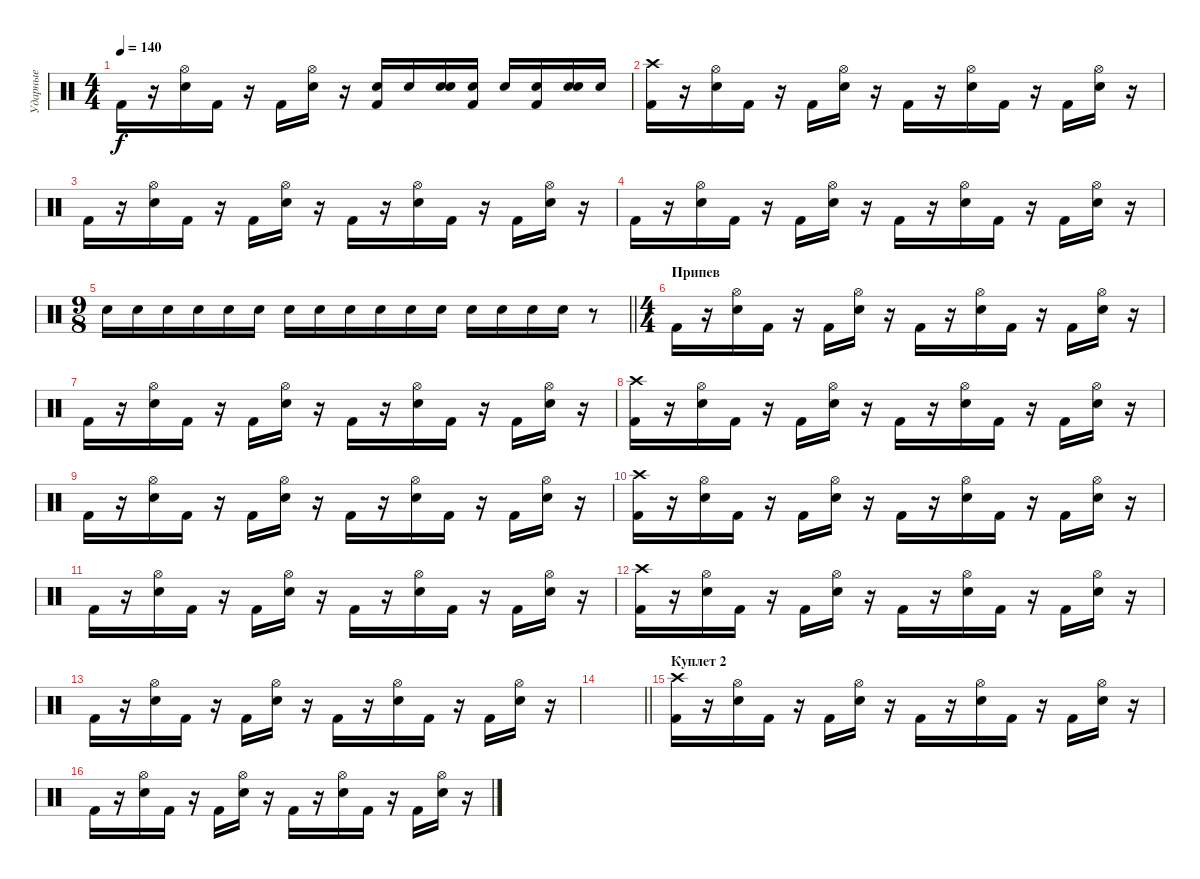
\track ("Ударные" "Ударные") {instrument percussion}
\staff {score}
\articulation defaults
\ts (4 4)
\tempo 140
\clef neutral
\ks c "Kick (hit) 2".16{dy f}
r.16 ("Electric Snare (hit)" "Hi-Hat (open)").16 "Kick (hit) 2".16 r.16 "Kick (hit) 2".16 ("Electric Snare (hit)" "Hi-Hat (open)").16 r.16 ("Kick (hit) 2" "Electric Snare (hit)").16 "Electric Snare (hit)".16 ("Electric Snare (hit)" "Electric Snare (hit)").16 ("Kick (hit) 2" "Electric Snare (hit)").16 "Electric Snare (hit)".16 ("Kick (hit) 2" "Electric Snare (hit)").16 ("Electric Snare (hit)" "Electric Snare (hit)").16 "Electric Snare (hit)".16 |
("Kick (hit) 2" "Crash high (hit)").16 r.16 ("Electric Snare (hit)" "Hi-Hat (open)").16 "Kick (hit) 2".16 r.16 "Kick (hit) 2".16 ("Electric Snare (hit)" "Hi-Hat (open)").16 r.16 "Kick (hit) 2".16 r.16 ("Electric Snare (hit)" "Hi-Hat (open)").16 "Kick (hit) 2".16 r.16 "Kick (hit) 2".16 ("Electric Snare (hit)" "Hi-Hat (open)").16 r.16 |
"Kick (hit) 2".16 r.16 ("Electric Snare (hit)" "Hi-Hat (open)").16 "Kick (hit) 2".16 r.16 "Kick (hit) 2".16 ("Electric Snare (hit)" "Hi-Hat (open)").16 r.16 "Kick (hit) 2".16 r.16 ("Electric Snare (hit)" "Hi-Hat (open)").16 "Kick (hit) 2".16 r.16 "Kick (hit) 2".16 ("Electric Snare (hit)" "Hi-Hat (open)").16 r.16 |
"Kick (hit) 2".16 r.16 ("Electric Snare (hit)" "Hi-Hat (open)").16 "Kick (hit) 2".16 r.16 "Kick (hit) 2".16 ("Electric Snare (hit)" "Hi-Hat (open)").16 r.16 "Kick (hit) 2".16 r.16 ("Electric Snare (hit)" "Hi-Hat (open)").16 "Kick (hit) 2".16 r.16 "Kick (hit) 2".16 ("Electric Snare (hit)" "Hi-Hat (open)").16 r.16 |
\ts (9 8)
\barLineRight lightlight "Electric Snare (hit)".16 "Electric Snare (hit)".16 "Electric Snare (hit)".16 "Electric Snare (hit)".16 "Electric Snare (hit)".16 "Electric Snare (hit)".16 "Electric Snare (hit)".16 "Electric Snare (hit)".16 "Electric Snare (hit)".16 "Electric Snare (hit)".16 "Electric Snare (hit)".16 "Electric Snare (hit)".16 "Electric Snare (hit)".16 "Electric Snare (hit)".16 "Electric Snare (hit)".16 "Electric Snare (hit)".16
r.8 |
\ts (4 4)
\section ("" "Припев")
"Kick (hit) 2".16 r.16 ("Electric Snare (hit)" "Hi-Hat (open)").16 "Kick (hit) 2".16 r.16 "Kick (hit) 2".16 ("Electric Snare (hit)" "Hi-Hat (open)").16 r.16 "Kick (hit) 2".16 r.16 ("Electric Snare (hit)" "Hi-Hat (open)").16 "Kick (hit) 2".16 r.16 "Kick (hit) 2".16 ("Electric Snare (hit)" "Hi-Hat (open)").16 r.16 |
"Kick (hit) 2".16 r.16 ("Electric Snare (hit)" "Hi-Hat (open)").16 "Kick (hit) 2".16 r.16 "Kick (hit) 2".16 ("Electric Snare (hit)" "Hi-Hat (open)").16 r.16 "Kick (hit) 2".16 r.16 ("Electric Snare (hit)" "Hi-Hat (open)").16 "Kick (hit) 2".16 r.16 "Kick (hit) 2".16 ("Electric Snare (hit)" "Hi-Hat (open)").16 r.16 |
("Kick (hit) 2" "Crash high (hit)").16 r.16 ("Electric Snare (hit)" "Hi-Hat (open)").16 "Kick (hit) 2".16 r.16 "Kick (hit) 2".16 ("Electric Snare (hit)" "Hi-Hat (open)").16 r.16 "Kick (hit) 2".16 r.16 ("Electric Snare (hit)" "Hi-Hat (open)").16 "Kick (hit) 2".16 r.16 "Kick (hit) 2".16 ("Electric Snare (hit)" "Hi-Hat (open)").16 r.16 |
"Kick (hit) 2".16 r.16 ("Electric Snare (hit)" "Hi-Hat (open)").16 "Kick (hit) 2".16 r.16 "Kick (hit) 2".16 ("Electric Snare (hit)" "Hi-Hat (open)").16 r.16 "Kick (hit) 2".16 r.16 ("Electric Snare (hit)" "Hi-Hat (open)").16 "Kick (hit) 2".16 r.16 "Kick (hit) 2".16 ("Electric Snare (hit)" "Hi-Hat (open)").16 r.16 |
("Kick (hit) 2" "Crash high (hit)").16 r.16 ("Electric Snare (hit)" "Hi-Hat (open)").16 "Kick (hit) 2".16 r.16 "Kick (hit) 2".16 ("Electric Snare (hit)" "Hi-Hat (open)").16 r.16 "Kick (hit) 2".16 r.16 ("Electric Snare (hit)" "Hi-Hat (open)").16 "Kick (hit) 2".16 r.16 "Kick (hit) 2".16 ("Electric Snare (hit)" "Hi-Hat (open)").16 r.16 |
"Kick (hit) 2".16 r.16 ("Electric Snare (hit)" "Hi-Hat (open)").16 "Kick (hit) 2".16 r.16 "Kick (hit) 2".16 ("Electric Snare (hit)" "Hi-Hat (open)").16 r.16 "Kick (hit) 2".16 r.16 ("Electric Snare (hit)" "Hi-Hat (open)").16 "Kick (hit) 2".16 r.16 "Kick (hit) 2".16 ("Electric Snare (hit)" "Hi-Hat (open)").16 r.16 |
("Kick (hit) 2" "Crash high (hit)").16 r.16 ("Electric Snare (hit)" "Hi-Hat (open)").16 "Kick (hit) 2".16 r.16 "Kick (hit) 2".16 ("Electric Snare (hit)" "Hi-Hat (open)").16 r.16 "Kick (hit) 2".16 r.16 ("Electric Snare (hit)" "Hi-Hat (open)").16 "Kick (hit) 2".16 r.16 "Kick (hit) 2".16 ("Electric Snare (hit)" "Hi-Hat (open)").16 r.16 |
"Kick (hit) 2".16 r.16 ("Electric Snare (hit)" "Hi-Hat (open)").16 "Kick (hit) 2".16 r.16 "Kick (hit) 2".16 ("Electric Snare (hit)" "Hi-Hat (open)").16 r.16 "Kick (hit) 2".16 r.16 ("Electric Snare (hit)" "Hi-Hat (open)").16 "Kick (hit) 2".16 r.16 "Kick (hit) 2".16 ("Electric Snare (hit)" "Hi-Hat (open)").16 r.16 |
\barLineRight lightlight
|
\section ("" "Куплет 2")
("Kick (hit) 2" "Crash high (hit)").16 r.16 ("Electric Snare (hit)" "Hi-Hat (open)").16 "Kick (hit) 2".16 r.16 "Kick (hit) 2".16 ("Electric Snare (hit)" "Hi-Hat (open)").16 r.16 "Kick (hit) 2".16 r.16 ("Electric Snare (hit)" "Hi-Hat (open)").16 "Kick (hit) 2".16 r.16 "Kick (hit) 2".16 ("Electric Snare (hit)" "Hi-Hat (open)").16 r.16 |
"Kick (hit) 2".16 r.16 ("Electric Snare (hit)" "Hi-Hat (open)").16 "Kick (hit) 2".16 r.16 "Kick (hit) 2".16 ("Electric Snare (hit)" "Hi-Hat (open)").16 r.16 "Kick (hit) 2".16 r.16 ("Electric Snare (hit)" "Hi-Hat (open)").16 "Kick (hit) 2".16 r.16 "Kick (hit) 2".16 ("Electric Snare (hit)" "Hi-Hat (open)").16 r.16
